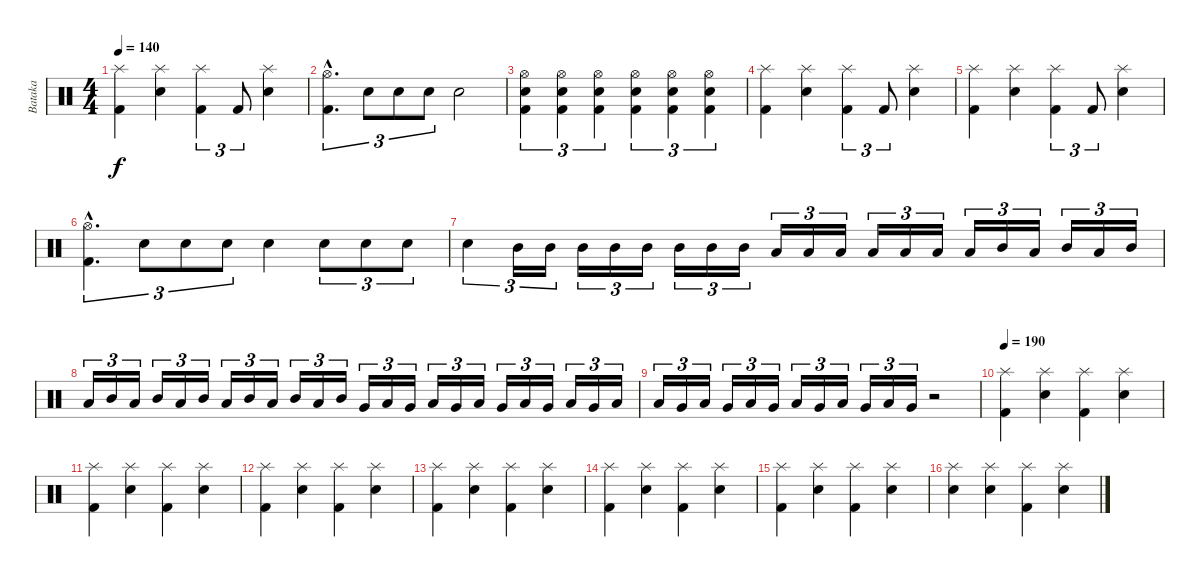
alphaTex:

\track ("Bataka" "Bataka") {instrument percussion}
\staff {score}
\articulation defaults
\ts (4 4)
\tempo 140
\clef neutral
\ks c
("Splash (hit)" "Kick (hit) 2").4{dy f} ("Splash (hit)" "Electric Snare (hit)").4 ("Splash (hit)" "Kick (hit) 2").4{tu (3 2)} "Kick (hit) 2".8{tu (3 2)} ("Splash (hit)" "Electric Snare (hit)").4 |
("Hi-Hat (open)"{hac} "Kick (hit) 2"{hac}).4{d tu (3 2)} "Electric Snare (hit)".8{tu (3 2)} "Electric Snare (hit)".8{tu (3 2)} "Electric Snare (hit)".8{tu (3 2)} "Electric Snare (hit)".2 |
("Hi-Hat (open)" "Electric Snare (hit)" "Kick (hit) 2").4{tu (3 2)} ("Hi-Hat (open)" "Electric Snare (hit)" "Kick (hit) 2").4{tu (3 2)} ("Hi-Hat (open)" "Electric Snare (hit)" "Kick (hit) 2").4{tu (3 2)} ("Hi-Hat (open)" "Electric Snare (hit)" "Kick (hit) 2").4{tu (3 2)} ("Hi-Hat (open)" "Electric Snare (hit)" "Kick (hit) 2").4{tu (3 2)} ("Hi-Hat (open)" "Electric Snare (hit)" "Kick (hit) 2").4{tu (3 2)} |
("Splash (hit)" "Kick (hit) 2").4 ("Splash (hit)" "Electric Snare (hit)").4 ("Splash (hit)" "Kick (hit) 2").4{tu (3 2)} "Kick (hit) 2".8{tu (3 2)} ("Splash (hit)" "Electric Snare (hit)").4 |
("Splash (hit)" "Kick (hit) 2").4 ("Splash (hit)" "Electric Snare (hit)").4 ("Splash (hit)" "Kick (hit) 2").4{tu (3 2)} "Kick (hit) 2".8{tu (3 2)} ("Splash (hit)" "Electric Snare (hit)").4 |
("Hi-Hat (open)"{hac} "Kick (hit) 2"{hac}).4{d tu (3 2)} "Electric Snare (hit)".8{tu (3 2)} "Electric Snare (hit)".8{tu (3 2)} "Electric Snare (hit)".8{tu (3 2)} "Electric Snare (hit)".4 "Electric Snare (hit)".8{tu (3 2)} "Electric Snare (hit)".8{tu (3 2)} "Electric Snare (hit)".8{tu (3 2)} |
"Electric Snare (hit)".4{tu (3 2)} "Mid Tom (hit)".16{tu (3 2)} "Mid Tom (hit)".16{tu (3 2)} "Mid Tom (hit)".16{tu (3 2)} "Mid Tom (hit)".16{tu (3 2)} "Mid Tom (hit)".16{tu (3 2)} "Mid Tom (hit)".16{tu (3 2)} "Mid Tom (hit)".16{tu (3 2)} "Mid Tom (hit)".16{tu (3 2)} "Low Tom (hit)".16{tu (3 2)} "Low Tom (hit)".16{tu (3 2)} "Low Tom (hit)".16{tu (3 2)} "Low Tom (hit)".16{tu (3 2)} "Low Tom (hit)".16{tu (3 2)} "Low Tom (hit)".16{tu (3 2)} "Low Tom (hit)".16{tu (3 2)} "Mid Tom (hit)".16{tu (3 2)} "Low Tom (hit)".16{tu (3 2)} "Mid Tom (hit)".16{tu (3 2)} "Low Tom (hit)".16{tu (3 2)} "Mid Tom (hit)".16{tu (3 2)} |
"Low Tom (hit)".16{tu (3 2)} "Mid Tom (hit)".16{tu (3 2)} "Low Tom (hit)".16{tu (3 2)} "Mid Tom (hit)".16{tu (3 2)} "Low Tom (hit)".16{tu (3 2)} "Mid Tom (hit)".16{tu (3 2)} "Low Tom (hit)".16{tu (3 2)} "Mid Tom (hit)".16{tu (3 2)} "Low Tom (hit)".16{tu (3 2)} "Mid Tom (hit)".16{tu (3 2)} "Low Tom (hit)".16{tu (3 2)} "Mid Tom (hit)".16{tu (3 2)} "Very Low Tom (hit)".16{tu (3 2)} "Low Tom (hit)".16{tu (3 2)} "Very Low Tom (hit)".16{tu (3 2)} "Low Tom (hit)".16{tu (3 2)} "Very Low Tom (hit)".16{tu (3 2)} "Low Tom (hit)".16{tu (3 2)} "Very Low Tom (hit)".16{tu (3 2)} "Low Tom (hit)".16{tu (3 2)} "Very Low Tom (hit)".16{tu (3 2)} "Low Tom (hit)".16{tu (3 2)} "Very Low Tom (hit)".16{tu (3 2)} "Low Tom (hit)".16{tu (3 2)} |
"Low Floor Tom (hit)".16{tu (3 2)} "Very Low Tom (hit)".16{tu (3 2)} "Low Floor Tom (hit)".16{tu (3 2)} "Very Low Tom (hit)".16{tu (3 2)} "Low Floor Tom (hit)".16{tu (3 2)} "Very Low Tom (hit)".16{tu (3 2)} "Low Floor Tom (hit)".16{tu (3 2)} "Very Low Tom (hit)".16{tu (3 2)} "Low Floor Tom (hit)".16{tu (3 2)} "Very Low Tom (hit)".16{tu (3 2)} "Low Floor Tom (hit)".16{tu (3 2)} "Very Low Tom (hit)".16{tu (3 2)} r.2 |
\tempo 190
("Splash (hit)" "Kick (hit) 2").4 ("Splash (hit)" "Electric Snare (hit)").4 ("Splash (hit)" "Kick (hit) 2").4 ("Splash (hit)" "Electric Snare (hit)").4 |
("Splash (hit)" "Kick (hit) 2").4 ("Splash (hit)" "Electric Snare (hit)").4 ("Splash (hit)" "Kick (hit) 2").4 ("Splash (hit)" "Electric Snare (hit)").4 |
("Splash (hit)" "Kick (hit) 2").4 ("Splash (hit)" "Electric Snare (hit)").4 ("Splash (hit)" "Kick (hit) 2").4 ("Splash (hit)" "Electric Snare (hit)").4 |
("Splash (hit)" "Kick (hit) 2").4 ("Splash (hit)" "Electric Snare (hit)").4 ("Splash (hit)" "Kick (hit) 2").4 ("Splash (hit)" "Electric Snare (hit)").4 |
("Splash (hit)" "Kick (hit) 2").4 ("Splash (hit)" "Electric Snare (hit)").4 ("Splash (hit)" "Kick (hit) 2").4 ("Splash (hit)" "Electric Snare (hit)").4 |
("Splash (hit)" "Kick (hit) 2").4 ("Splash (hit)" "Electric Snare (hit)").4 ("Splash (hit)" "Kick (hit) 2").4 ("Splash (hit)" "Electric Snare (hit)").4 |
("Splash (hit)" "Electric Snare (hit)").4 ("Splash (hit)" "Electric Snare (hit)").4 ("Splash (hit)" "Kick (hit) 2").4 ("Splash (hit)" "Electric Snare (hit)").4
